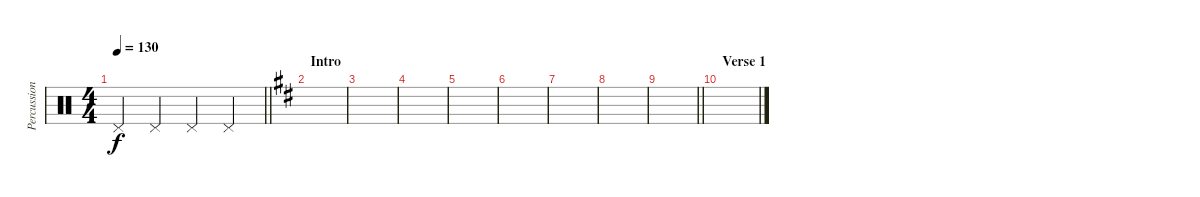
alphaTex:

\track ("Percussioni" "Percussion") {instrument percussion}
\staff {score}
\articulation defaults
\ts (4 4)
\tempo 130
\clef neutral
\barLineRight lightlight
\ks c "Pedal Hi-Hat (hit)".4{dy f} "Pedal Hi-Hat (hit)".4 "Pedal Hi-Hat (hit)".4 "Pedal Hi-Hat (hit)".4
|
\section ("" "Intro")
\ks d
|
|
|
|
|
|
|
\barLineRight lightlight
|
\section ("" "Verse 1")
